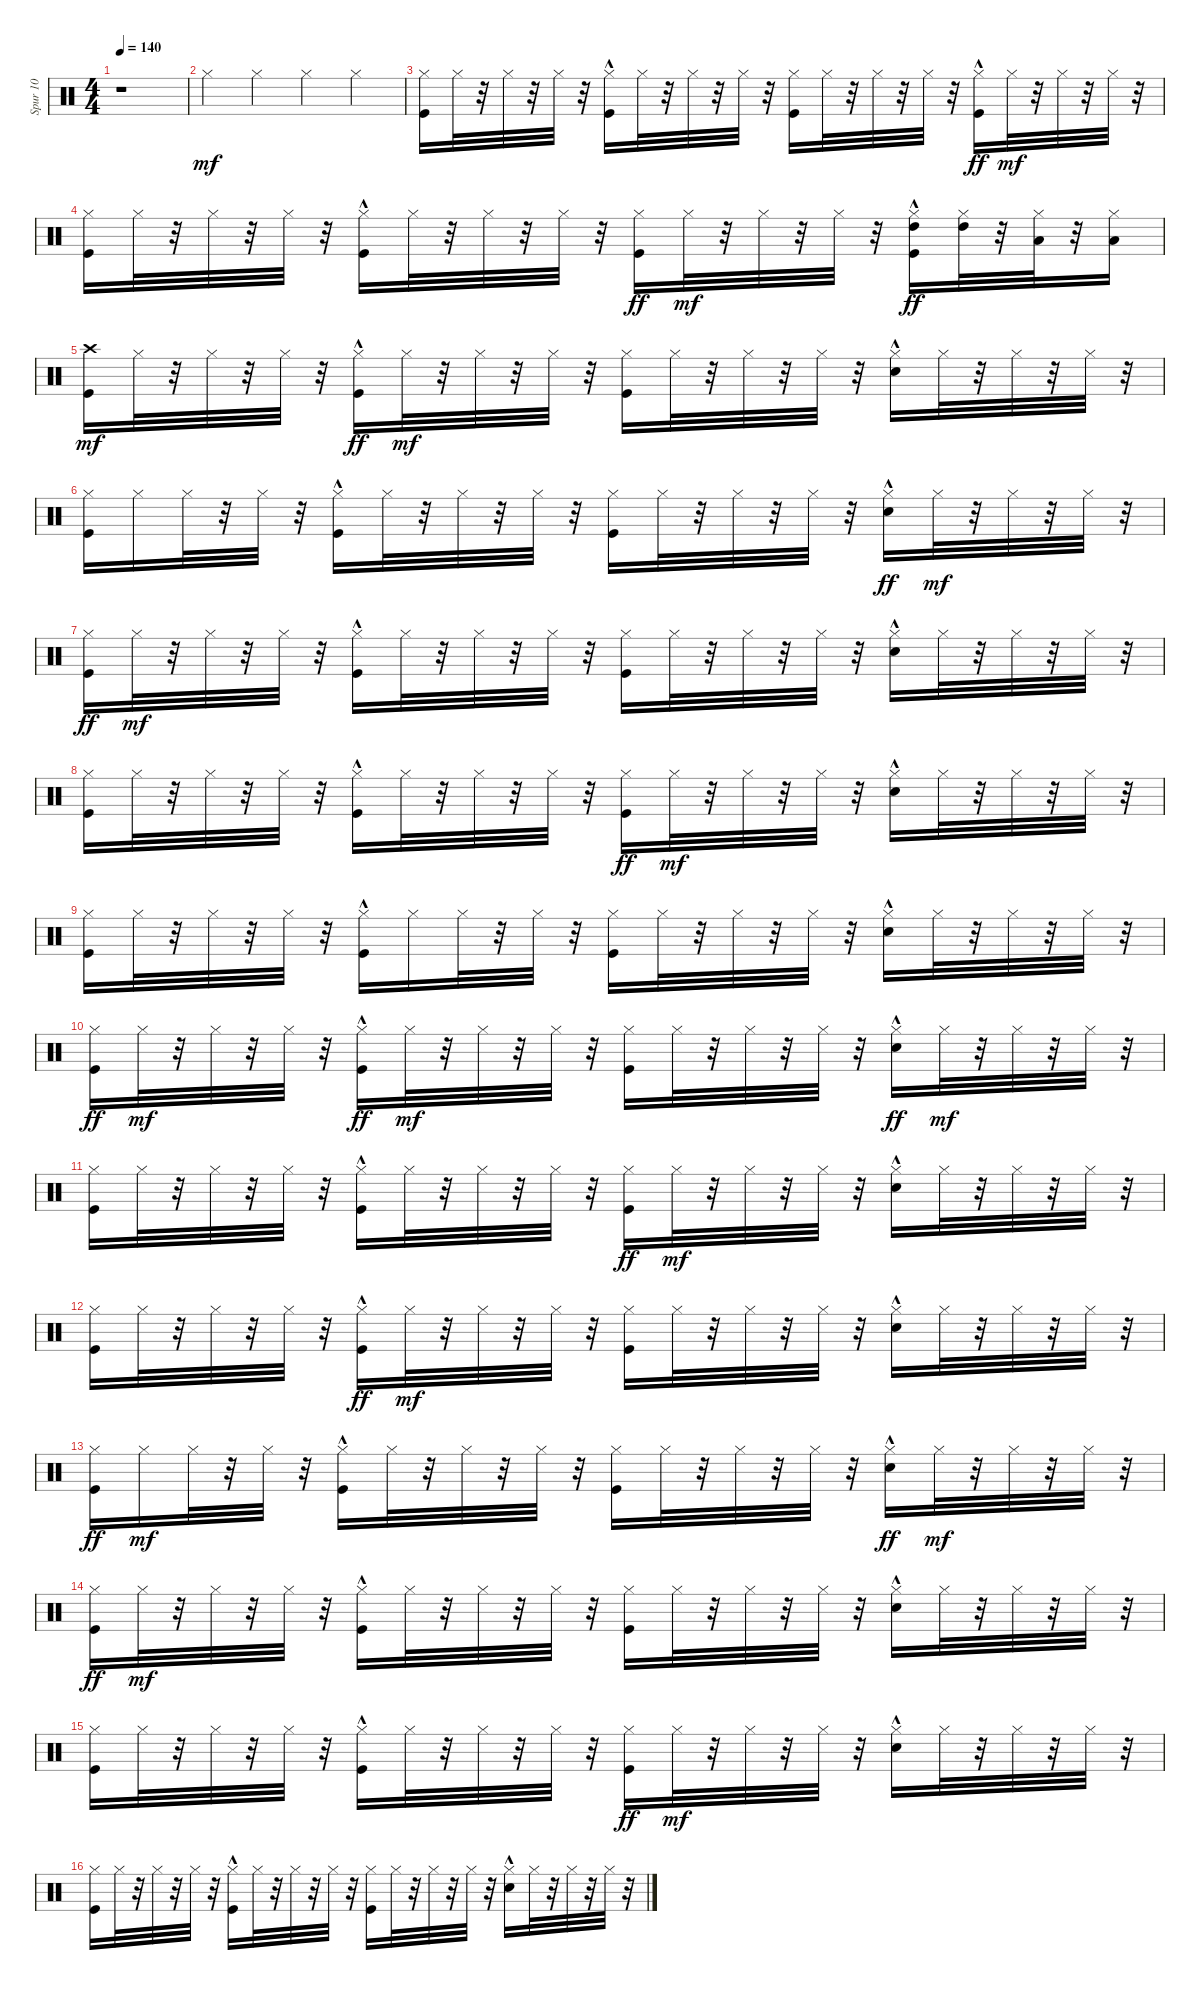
\track ("Spur 10" "Spur 10") {instrument percussion}
\staff {score}
\articulation defaults
\ts (4 4)
\tempo 140
\clef neutral
\ks c
r.1{dy mf} |
"Hi-Hat (closed)".4 "Hi-Hat (closed)".4 "Hi-Hat (closed)".4 "Hi-Hat (closed)".4 |
("Kick (hit)" "Hi-Hat (closed)").16 "Hi-Hat (closed)".32 r.32 "Hi-Hat (closed)".32 r.32 "Hi-Hat (closed)".32 r.32 ("Kick (hit)"{hac} "Hi-Hat (closed)").16 "Hi-Hat (closed)".32 r.32 "Hi-Hat (closed)".32 r.32 "Hi-Hat (closed)".32 r.32 ("Kick (hit)" "Hi-Hat (closed)").16 "Hi-Hat (closed)".32 r.32 "Hi-Hat (closed)".32 r.32 "Hi-Hat (closed)".32 r.32 ("Hi-Hat (closed)" "Kick (hit)"{hac}).16{dy ff} "Hi-Hat (closed)".32{dy mf} r.32 "Hi-Hat (closed)".32 r.32 "Hi-Hat (closed)".32 r.32 |
("Kick (hit)" "Hi-Hat (closed)").16 "Hi-Hat (closed)".32 r.32 "Hi-Hat (closed)".32 r.32 "Hi-Hat (closed)".32 r.32 ("Kick (hit)"{hac} "Hi-Hat (closed)").16 "Hi-Hat (closed)".32 r.32 "Hi-Hat (closed)".32 r.32 "Hi-Hat (closed)".32 r.32 ("Hi-Hat (closed)" "Kick (hit)").16{dy ff} "Hi-Hat (closed)".32{dy mf} r.32 "Hi-Hat (closed)".32 r.32 "Hi-Hat (closed)".32 r.32 ("Kick (hit)"{hac} "Hi-Hat (closed)" "High Tom (hit)").16{dy ff} ("Hi-Hat (closed)" "High Tom (hit)").32 r.32 ("Hi-Hat (closed)" "Low Tom (hit)").32 r.32 ("Hi-Hat (closed)" "Low Tom (hit)").16 |
("Kick (hit)" "Crash high (hit)").16{dy mf} "Hi-Hat (closed)".32 r.32 "Hi-Hat (closed)".32 r.32 "Hi-Hat (closed)".32 r.32 ("Hi-Hat (closed)" "Kick (hit)"{hac}).16{dy ff} "Hi-Hat (closed)".32{dy mf} r.32 "Hi-Hat (closed)".32 r.32 "Hi-Hat (closed)".32 r.32 ("Kick (hit)" "Hi-Hat (closed)").16 "Hi-Hat (closed)".32 r.32 "Hi-Hat (closed)".32 r.32 "Hi-Hat (closed)".32 r.32 ("Snare (hit) 2"{hac} "Hi-Hat (closed)").16 "Hi-Hat (closed)".32 r.32 "Hi-Hat (closed)".32 r.32 "Hi-Hat (closed)".32 r.32 |
("Kick (hit)" "Hi-Hat (closed)").16 "Hi-Hat (closed)".16 "Hi-Hat (closed)".32 r.32 "Hi-Hat (closed)".32 r.32 ("Kick (hit)"{hac} "Hi-Hat (closed)").16 "Hi-Hat (closed)".32 r.32 "Hi-Hat (closed)".32 r.32 "Hi-Hat (closed)".32 r.32 ("Kick (hit)" "Hi-Hat (closed)").16 "Hi-Hat (closed)".32 r.32 "Hi-Hat (closed)".32 r.32 "Hi-Hat (closed)".32 r.32 ("Hi-Hat (closed)" "Snare (hit) 2"{hac}).16{dy ff} "Hi-Hat (closed)".32{dy mf} r.32 "Hi-Hat (closed)".32 r.32 "Hi-Hat (closed)".32 r.32 |
("Hi-Hat (closed)" "Kick (hit)").16{dy ff} "Hi-Hat (closed)".32{dy mf} r.32 "Hi-Hat (closed)".32 r.32 "Hi-Hat (closed)".32 r.32 ("Kick (hit)"{hac} "Hi-Hat (closed)").16 "Hi-Hat (closed)".32 r.32 "Hi-Hat (closed)".32 r.32 "Hi-Hat (closed)".32 r.32 ("Kick (hit)" "Hi-Hat (closed)").16 "Hi-Hat (closed)".32 r.32 "Hi-Hat (closed)".32 r.32 "Hi-Hat (closed)".32 r.32 ("Snare (hit) 2"{hac} "Hi-Hat (closed)").16 "Hi-Hat (closed)".32 r.32 "Hi-Hat (closed)".32 r.32 "Hi-Hat (closed)".32 r.32 |
("Kick (hit)" "Hi-Hat (closed)").16 "Hi-Hat (closed)".32 r.32 "Hi-Hat (closed)".32 r.32 "Hi-Hat (closed)".32 r.32 ("Kick (hit)"{hac} "Hi-Hat (closed)").16 "Hi-Hat (closed)".32 r.32 "Hi-Hat (closed)".32 r.32 "Hi-Hat (closed)".32 r.32 ("Hi-Hat (closed)" "Kick (hit)").16{dy ff} "Hi-Hat (closed)".32{dy mf} r.32 "Hi-Hat (closed)".32 r.32 "Hi-Hat (closed)".32 r.32 ("Snare (hit) 2"{hac} "Hi-Hat (closed)").16 "Hi-Hat (closed)".32 r.32 "Hi-Hat (closed)".32 r.32 "Hi-Hat (closed)".32 r.32 |
("Kick (hit)" "Hi-Hat (closed)").16 "Hi-Hat (closed)".32 r.32 "Hi-Hat (closed)".32 r.32 "Hi-Hat (closed)".32 r.32 ("Kick (hit)"{hac} "Hi-Hat (closed)").16 "Hi-Hat (closed)".16 "Hi-Hat (closed)".32 r.32 "Hi-Hat (closed)".32 r.32 ("Kick (hit)" "Hi-Hat (closed)").16 "Hi-Hat (closed)".32 r.32 "Hi-Hat (closed)".32 r.32 "Hi-Hat (closed)".32 r.32 ("Snare (hit) 2"{hac} "Hi-Hat (closed)").16 "Hi-Hat (closed)".32 r.32 "Hi-Hat (closed)".32 r.32 "Hi-Hat (closed)".32 r.32 |
("Hi-Hat (closed)" "Kick (hit)").16{dy ff} "Hi-Hat (closed)".32{dy mf} r.32 "Hi-Hat (closed)".32 r.32 "Hi-Hat (closed)".32 r.32 ("Hi-Hat (closed)" "Kick (hit)"{hac}).16{dy ff} "Hi-Hat (closed)".32{dy mf} r.32 "Hi-Hat (closed)".32 r.32 "Hi-Hat (closed)".32 r.32 ("Kick (hit)" "Hi-Hat (closed)").16 "Hi-Hat (closed)".32 r.32 "Hi-Hat (closed)".32 r.32 "Hi-Hat (closed)".32 r.32 ("Hi-Hat (closed)" "Snare (hit) 2"{hac}).16{dy ff} "Hi-Hat (closed)".32{dy mf} r.32 "Hi-Hat (closed)".32 r.32 "Hi-Hat (closed)".32 r.32 |
("Kick (hit)" "Hi-Hat (closed)").16 "Hi-Hat (closed)".32 r.32 "Hi-Hat (closed)".32 r.32 "Hi-Hat (closed)".32 r.32 ("Kick (hit)"{hac} "Hi-Hat (closed)").16 "Hi-Hat (closed)".32 r.32 "Hi-Hat (closed)".32 r.32 "Hi-Hat (closed)".32 r.32 ("Hi-Hat (closed)" "Kick (hit)").16{dy ff} "Hi-Hat (closed)".32{dy mf} r.32 "Hi-Hat (closed)".32 r.32 "Hi-Hat (closed)".32 r.32 ("Snare (hit) 2"{hac} "Hi-Hat (closed)").16 "Hi-Hat (closed)".32 r.32 "Hi-Hat (closed)".32 r.32 "Hi-Hat (closed)".32 r.32 |
("Kick (hit)" "Hi-Hat (closed)").16 "Hi-Hat (closed)".32 r.32 "Hi-Hat (closed)".32 r.32 "Hi-Hat (closed)".32 r.32 ("Hi-Hat (closed)" "Kick (hit)"{hac}).16{dy ff} "Hi-Hat (closed)".32{dy mf} r.32 "Hi-Hat (closed)".32 r.32 "Hi-Hat (closed)".32 r.32 ("Kick (hit)" "Hi-Hat (closed)").16 "Hi-Hat (closed)".32 r.32 "Hi-Hat (closed)".32 r.32 "Hi-Hat (closed)".32 r.32 ("Snare (hit) 2"{hac} "Hi-Hat (closed)").16 "Hi-Hat (closed)".32 r.32 "Hi-Hat (closed)".32 r.32 "Hi-Hat (closed)".32 r.32 |
("Hi-Hat (closed)" "Kick (hit)").16{dy ff} "Hi-Hat (closed)".16{dy mf} "Hi-Hat (closed)".32 r.32 "Hi-Hat (closed)".32 r.32 ("Kick (hit)"{hac} "Hi-Hat (closed)").16 "Hi-Hat (closed)".32 r.32 "Hi-Hat (closed)".32 r.32 "Hi-Hat (closed)".32 r.32 ("Kick (hit)" "Hi-Hat (closed)").16 "Hi-Hat (closed)".32 r.32 "Hi-Hat (closed)".32 r.32 "Hi-Hat (closed)".32 r.32 ("Hi-Hat (closed)" "Snare (hit) 2"{hac}).16{dy ff} "Hi-Hat (closed)".32{dy mf} r.32 "Hi-Hat (closed)".32 r.32 "Hi-Hat (closed)".32 r.32 |
("Hi-Hat (closed)" "Kick (hit)").16{dy ff} "Hi-Hat (closed)".32{dy mf} r.32 "Hi-Hat (closed)".32 r.32 "Hi-Hat (closed)".32 r.32 ("Kick (hit)"{hac} "Hi-Hat (closed)").16 "Hi-Hat (closed)".32 r.32 "Hi-Hat (closed)".32 r.32 "Hi-Hat (closed)".32 r.32 ("Kick (hit)" "Hi-Hat (closed)").16 "Hi-Hat (closed)".32 r.32 "Hi-Hat (closed)".32 r.32 "Hi-Hat (closed)".32 r.32 ("Snare (hit) 2"{hac} "Hi-Hat (closed)").16 "Hi-Hat (closed)".32 r.32 "Hi-Hat (closed)".32 r.32 "Hi-Hat (closed)".32 r.32 |
("Kick (hit)" "Hi-Hat (closed)").16 "Hi-Hat (closed)".32 r.32 "Hi-Hat (closed)".32 r.32 "Hi-Hat (closed)".32 r.32 ("Kick (hit)"{hac} "Hi-Hat (closed)").16 "Hi-Hat (closed)".32 r.32 "Hi-Hat (closed)".32 r.32 "Hi-Hat (closed)".32 r.32 ("Hi-Hat (closed)" "Kick (hit)").16{dy ff} "Hi-Hat (closed)".32{dy mf} r.32 "Hi-Hat (closed)".32 r.32 "Hi-Hat (closed)".32 r.32 ("Snare (hit) 2"{hac} "Hi-Hat (closed)").16 "Hi-Hat (closed)".32 r.32 "Hi-Hat (closed)".32 r.32 "Hi-Hat (closed)".32 r.32 |
("Kick (hit)" "Hi-Hat (closed)").16 "Hi-Hat (closed)".32 r.32 "Hi-Hat (closed)".32 r.32 "Hi-Hat (closed)".32 r.32 ("Kick (hit)"{hac} "Hi-Hat (closed)").16 "Hi-Hat (closed)".32 r.32 "Hi-Hat (closed)".32 r.32 "Hi-Hat (closed)".32 r.32 ("Kick (hit)" "Hi-Hat (closed)").16 "Hi-Hat (closed)".32 r.32 "Hi-Hat (closed)".32 r.32 "Hi-Hat (closed)".32 r.32 ("Snare (hit) 2"{hac} "Hi-Hat (closed)").16 "Hi-Hat (closed)".32 r.32 "Hi-Hat (closed)".32 r.32 "Hi-Hat (closed)".32 r.32
